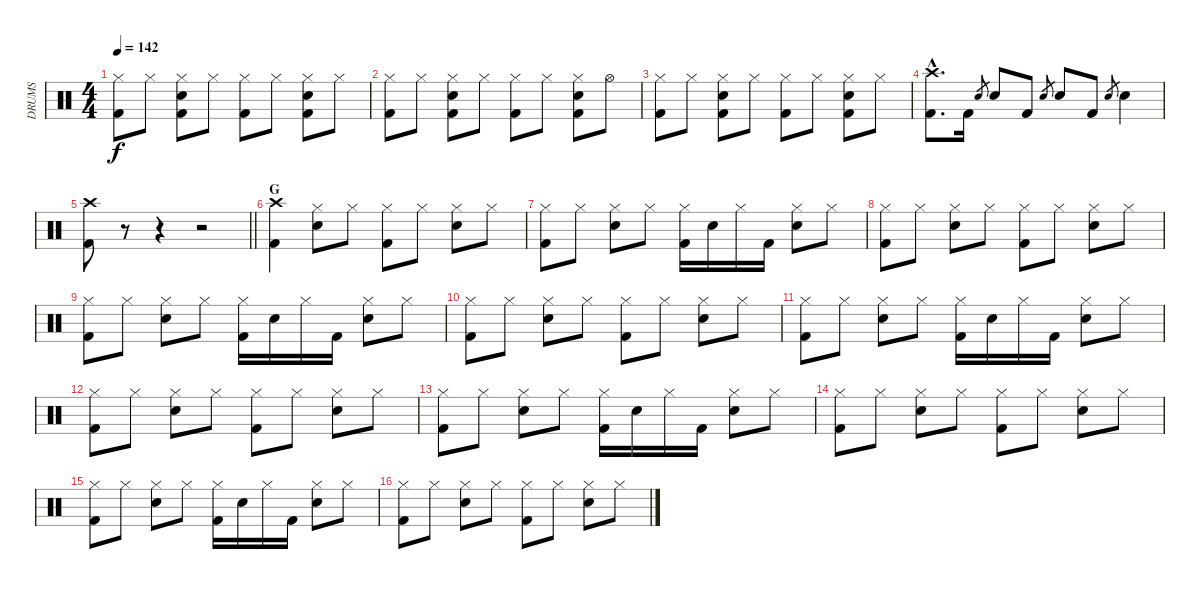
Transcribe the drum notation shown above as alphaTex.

\track ("DRUMS" "DRUMS") {instrument percussion}
\staff {score}
\articulation defaults
\ts (4 4)
\tempo 142
\clef neutral
\ks c
("Hi-Hat (closed)" "Kick (hit) 2").8{dy f} "Hi-Hat (closed)".8 ("Hi-Hat (closed)" "Kick (hit) 2" "Snare (hit) 2").8 "Hi-Hat (closed)".8 ("Hi-Hat (closed)" "Kick (hit) 2").8 "Hi-Hat (closed)".8 ("Hi-Hat (closed)" "Kick (hit) 2" "Snare (hit) 2").8 "Hi-Hat (closed)".8 |
("Hi-Hat (closed)" "Kick (hit) 2").8 "Hi-Hat (closed)".8 ("Hi-Hat (closed)" "Kick (hit) 2" "Snare (hit) 2").8 "Hi-Hat (closed)".8 ("Hi-Hat (closed)" "Kick (hit) 2").8 "Hi-Hat (closed)".8 ("Hi-Hat (closed)" "Kick (hit) 2" "Snare (hit) 2").8 "Hi-Hat (open)".8 |
("Hi-Hat (closed)" "Kick (hit) 2").8 "Hi-Hat (closed)".8 ("Hi-Hat (closed)" "Kick (hit) 2" "Snare (hit) 2").8 "Hi-Hat (closed)".8 ("Hi-Hat (closed)" "Kick (hit) 2").8 "Hi-Hat (closed)".8 ("Hi-Hat (closed)" "Kick (hit) 2" "Snare (hit) 2").8 "Hi-Hat (closed)".8 |
("Crash high (hit)"{hac} "Kick (hit) 2"{hac}).8{d} "Kick (hit) 2".16 "Snare (hit) 2".8{gr} "Snare (hit) 2".8 "Kick (hit) 2".8 "Snare (hit) 2".8{gr} "Snare (hit) 2".8 "Kick (hit) 2".8 "Snare (hit) 2".8{gr} "Snare (hit) 2".4 |
\barLineRight lightlight
("Crash high (hit)" "Kick (hit) 2").8 r.8 r.4 r.2 |
\section ("" "G")
("Crash high (hit)" "Kick (hit) 2").4 ("Hi-Hat (closed)" "Snare (hit) 2").8 "Hi-Hat (closed)".8 ("Hi-Hat (closed)" "Kick (hit) 2").8 "Hi-Hat (closed)".8 ("Hi-Hat (closed)" "Snare (hit) 2").8 "Hi-Hat (closed)".8 |
("Hi-Hat (closed)" "Kick (hit) 2").8 "Hi-Hat (closed)".8 ("Hi-Hat (closed)" "Snare (hit) 2").8 "Hi-Hat (closed)".8 ("Hi-Hat (closed)" "Kick (hit) 2").16 "Snare (hit) 2".16 "Hi-Hat (closed)".16 "Kick (hit) 2".16 ("Hi-Hat (closed)" "Snare (hit) 2").8 "Hi-Hat (closed)".8 |
("Hi-Hat (closed)" "Kick (hit) 2").8 "Hi-Hat (closed)".8 ("Hi-Hat (closed)" "Snare (hit) 2").8 "Hi-Hat (closed)".8 ("Hi-Hat (closed)" "Kick (hit) 2").8 "Hi-Hat (closed)".8 ("Hi-Hat (closed)" "Snare (hit) 2").8 "Hi-Hat (closed)".8 |
("Hi-Hat (closed)" "Kick (hit) 2").8 "Hi-Hat (closed)".8 ("Hi-Hat (closed)" "Snare (hit) 2").8 "Hi-Hat (closed)".8 ("Hi-Hat (closed)" "Kick (hit) 2").16 "Snare (hit) 2".16 "Hi-Hat (closed)".16 "Kick (hit) 2".16 ("Hi-Hat (closed)" "Snare (hit) 2").8 "Hi-Hat (closed)".8 |
("Hi-Hat (closed)" "Kick (hit) 2").8 "Hi-Hat (closed)".8 ("Hi-Hat (closed)" "Snare (hit) 2").8 "Hi-Hat (closed)".8 ("Hi-Hat (closed)" "Kick (hit) 2").8 "Hi-Hat (closed)".8 ("Hi-Hat (closed)" "Snare (hit) 2").8 "Hi-Hat (closed)".8 |
("Hi-Hat (closed)" "Kick (hit) 2").8 "Hi-Hat (closed)".8 ("Hi-Hat (closed)" "Snare (hit) 2").8 "Hi-Hat (closed)".8 ("Hi-Hat (closed)" "Kick (hit) 2").16 "Snare (hit) 2".16 "Hi-Hat (closed)".16 "Kick (hit) 2".16 ("Hi-Hat (closed)" "Snare (hit) 2").8 "Hi-Hat (closed)".8 |
("Hi-Hat (closed)" "Kick (hit) 2").8 "Hi-Hat (closed)".8 ("Hi-Hat (closed)" "Snare (hit) 2").8 "Hi-Hat (closed)".8 ("Hi-Hat (closed)" "Kick (hit) 2").8 "Hi-Hat (closed)".8 ("Hi-Hat (closed)" "Snare (hit) 2").8 "Hi-Hat (closed)".8 |
("Hi-Hat (closed)" "Kick (hit) 2").8 "Hi-Hat (closed)".8 ("Hi-Hat (closed)" "Snare (hit) 2").8 "Hi-Hat (closed)".8 ("Hi-Hat (closed)" "Kick (hit) 2").16 "Snare (hit) 2".16 "Hi-Hat (closed)".16 "Kick (hit) 2".16 ("Hi-Hat (closed)" "Snare (hit) 2").8 "Hi-Hat (closed)".8 |
("Hi-Hat (closed)" "Kick (hit) 2").8 "Hi-Hat (closed)".8 ("Hi-Hat (closed)" "Snare (hit) 2").8 "Hi-Hat (closed)".8 ("Hi-Hat (closed)" "Kick (hit) 2").8 "Hi-Hat (closed)".8 ("Hi-Hat (closed)" "Snare (hit) 2").8 "Hi-Hat (closed)".8 |
("Hi-Hat (closed)" "Kick (hit) 2").8 "Hi-Hat (closed)".8 ("Hi-Hat (closed)" "Snare (hit) 2").8 "Hi-Hat (closed)".8 ("Hi-Hat (closed)" "Kick (hit) 2").16 "Snare (hit) 2".16 "Hi-Hat (closed)".16 "Kick (hit) 2".16 ("Hi-Hat (closed)" "Snare (hit) 2").8 "Hi-Hat (closed)".8 |
("Hi-Hat (closed)" "Kick (hit) 2").8 "Hi-Hat (closed)".8 ("Hi-Hat (closed)" "Snare (hit) 2").8 "Hi-Hat (closed)".8 ("Hi-Hat (closed)" "Kick (hit) 2").8 "Hi-Hat (closed)".8 ("Hi-Hat (closed)" "Snare (hit) 2").8 "Hi-Hat (closed)".8
